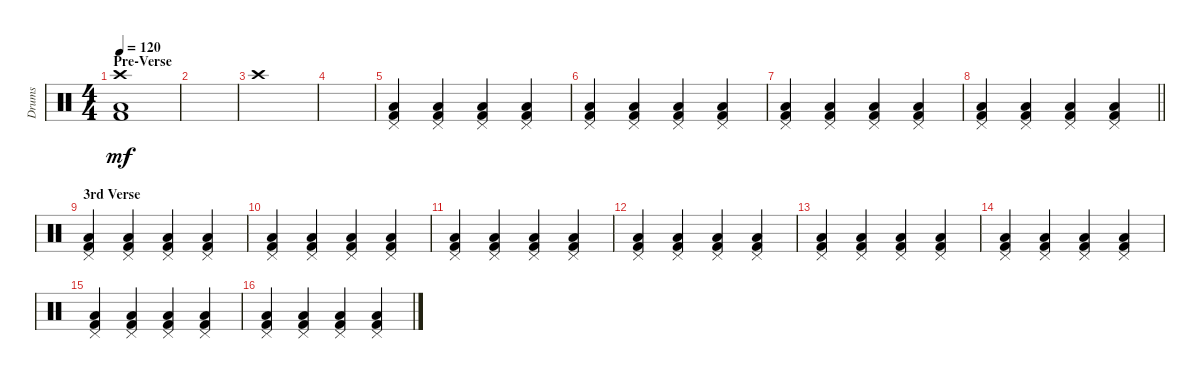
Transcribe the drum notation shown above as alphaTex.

\track ("Drums" "Drums") {instrument percussion}
\staff {score}
\articulation defaults
\ts (4 4)
\section ("" "Pre-Verse")
\tempo 120
\clef neutral
\ks c
("Crash high (hit)" "Low Floor Tom (hit)" "Kick (hit) 2").1{dy mf} |
|
"Crash high (hit)".1 |
|
("Pedal Hi-Hat (hit)" "Low Floor Tom (hit)" "Kick (hit) 2").4 ("Pedal Hi-Hat (hit)" "Low Floor Tom (hit)" "Kick (hit) 2").4 ("Pedal Hi-Hat (hit)" "Low Floor Tom (hit)" "Kick (hit) 2").4 ("Pedal Hi-Hat (hit)" "Low Floor Tom (hit)" "Kick (hit) 2").4 |
("Pedal Hi-Hat (hit)" "Low Floor Tom (hit)" "Kick (hit) 2").4 ("Pedal Hi-Hat (hit)" "Low Floor Tom (hit)" "Kick (hit) 2").4 ("Pedal Hi-Hat (hit)" "Low Floor Tom (hit)" "Kick (hit) 2").4 ("Pedal Hi-Hat (hit)" "Low Floor Tom (hit)" "Kick (hit) 2").4 |
("Pedal Hi-Hat (hit)" "Low Floor Tom (hit)" "Kick (hit) 2").4 ("Pedal Hi-Hat (hit)" "Low Floor Tom (hit)" "Kick (hit) 2").4 ("Pedal Hi-Hat (hit)" "Low Floor Tom (hit)" "Kick (hit) 2").4 ("Pedal Hi-Hat (hit)" "Low Floor Tom (hit)" "Kick (hit) 2").4 |
\barLineRight lightlight
("Pedal Hi-Hat (hit)" "Low Floor Tom (hit)" "Kick (hit) 2").4 ("Pedal Hi-Hat (hit)" "Low Floor Tom (hit)" "Kick (hit) 2").4 ("Pedal Hi-Hat (hit)" "Low Floor Tom (hit)" "Kick (hit) 2").4 ("Pedal Hi-Hat (hit)" "Low Floor Tom (hit)" "Kick (hit) 2").4 |
\section ("" "3rd Verse")
("Pedal Hi-Hat (hit)" "Low Floor Tom (hit)" "Kick (hit) 2").4 ("Pedal Hi-Hat (hit)" "Low Floor Tom (hit)" "Kick (hit) 2").4 ("Pedal Hi-Hat (hit)" "Low Floor Tom (hit)" "Kick (hit) 2").4 ("Pedal Hi-Hat (hit)" "Low Floor Tom (hit)" "Kick (hit) 2").4 |
("Pedal Hi-Hat (hit)" "Low Floor Tom (hit)" "Kick (hit) 2").4 ("Pedal Hi-Hat (hit)" "Low Floor Tom (hit)" "Kick (hit) 2").4 ("Pedal Hi-Hat (hit)" "Low Floor Tom (hit)" "Kick (hit) 2").4 ("Pedal Hi-Hat (hit)" "Low Floor Tom (hit)" "Kick (hit) 2").4 |
("Pedal Hi-Hat (hit)" "Low Floor Tom (hit)" "Kick (hit) 2").4 ("Pedal Hi-Hat (hit)" "Low Floor Tom (hit)" "Kick (hit) 2").4 ("Pedal Hi-Hat (hit)" "Low Floor Tom (hit)" "Kick (hit) 2").4 ("Pedal Hi-Hat (hit)" "Low Floor Tom (hit)" "Kick (hit) 2").4 |
("Pedal Hi-Hat (hit)" "Low Floor Tom (hit)" "Kick (hit) 2").4 ("Pedal Hi-Hat (hit)" "Low Floor Tom (hit)" "Kick (hit) 2").4 ("Pedal Hi-Hat (hit)" "Low Floor Tom (hit)" "Kick (hit) 2").4 ("Pedal Hi-Hat (hit)" "Low Floor Tom (hit)" "Kick (hit) 2").4 |
("Pedal Hi-Hat (hit)" "Low Floor Tom (hit)" "Kick (hit) 2").4 ("Pedal Hi-Hat (hit)" "Low Floor Tom (hit)" "Kick (hit) 2").4 ("Pedal Hi-Hat (hit)" "Low Floor Tom (hit)" "Kick (hit) 2").4 ("Pedal Hi-Hat (hit)" "Low Floor Tom (hit)" "Kick (hit) 2").4 |
("Pedal Hi-Hat (hit)" "Low Floor Tom (hit)" "Kick (hit) 2").4 ("Pedal Hi-Hat (hit)" "Low Floor Tom (hit)" "Kick (hit) 2").4 ("Pedal Hi-Hat (hit)" "Low Floor Tom (hit)" "Kick (hit) 2").4 ("Pedal Hi-Hat (hit)" "Low Floor Tom (hit)" "Kick (hit) 2").4 |
("Pedal Hi-Hat (hit)" "Low Floor Tom (hit)" "Kick (hit) 2").4 ("Pedal Hi-Hat (hit)" "Low Floor Tom (hit)" "Kick (hit) 2").4 ("Pedal Hi-Hat (hit)" "Low Floor Tom (hit)" "Kick (hit) 2").4 ("Pedal Hi-Hat (hit)" "Low Floor Tom (hit)" "Kick (hit) 2").4 |
("Pedal Hi-Hat (hit)" "Low Floor Tom (hit)" "Kick (hit) 2").4 ("Pedal Hi-Hat (hit)" "Low Floor Tom (hit)" "Kick (hit) 2").4 ("Pedal Hi-Hat (hit)" "Low Floor Tom (hit)" "Kick (hit) 2").4 ("Pedal Hi-Hat (hit)" "Low Floor Tom (hit)" "Kick (hit) 2").4
